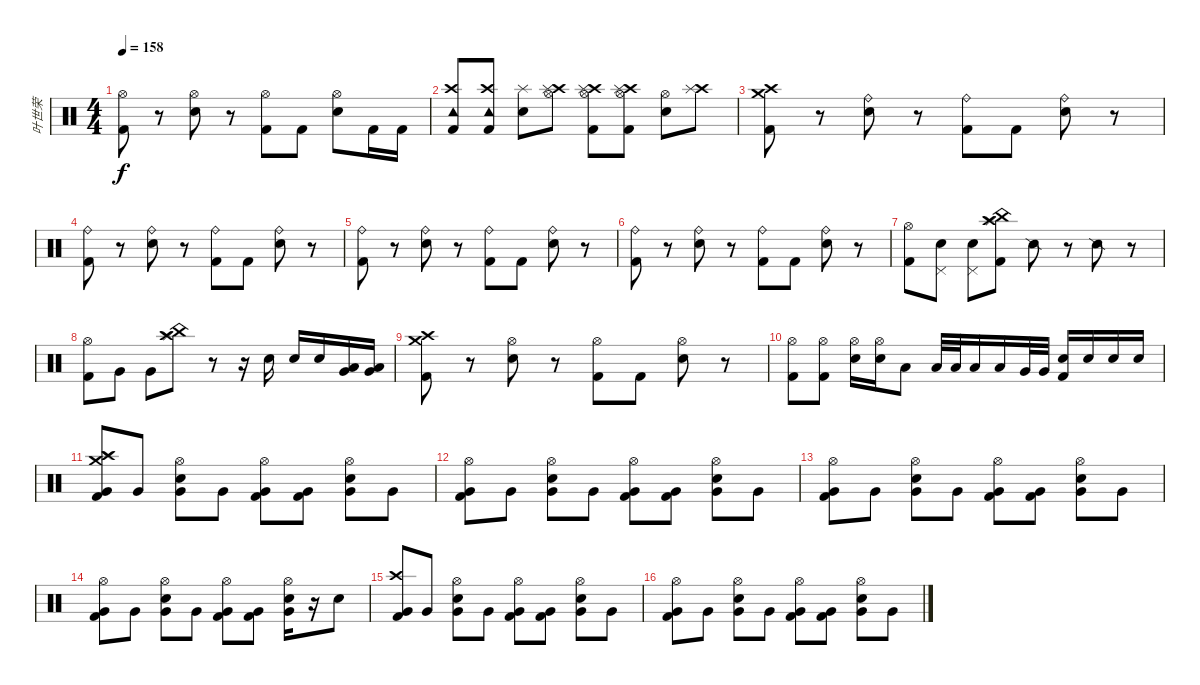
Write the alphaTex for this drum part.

\track ("叶世荣" "叶世荣") {instrument percussion}
\staff {score}
\articulation defaults
\ts (4 4)
\tempo 158
\clef neutral
\ks c
("Hi-Hat (open)" "Kick (hit) 2").8{dy f} r.8 ("Hi-Hat (open)" "Snare (hit) 2").8 r.8 ("Hi-Hat (open)" "Kick (hit) 2").8 "Kick (hit) 2".8 ("Hi-Hat (open)" "Snare (hit) 2").8 "Kick (hit) 2".16 "Kick (hit) 2".16 |
("Crash high (hit)" "Tambourine (hit)" "Kick (hit) 2").8 ("Crash high (hit)" "Tambourine (hit)" "Kick (hit) 2").8 ("Splash (hit)" "Snare (hit) 2").8 ("Crash high (hit)" "Hi-Hat (open)" "Splash (hit)").8 ("Crash high (hit)" "Hi-Hat (open)" "Splash (hit)" "Kick (hit) 2").8 ("Crash high (hit)" "Hi-Hat (open)" "Splash (hit)" "Kick (hit) 2").8 ("Hi-Hat (open)" "Snare (hit) 2").8 ("Crash high (hit)" "Splash (hit)").8 |
("Crash high (hit)" "Crash medium (hit)" "Kick (hit) 2").8 r.8 ("Ride (bell)" "Snare (hit) 2").8 r.8 ("Ride (bell)" "Kick (hit) 2").8 "Kick (hit) 2".8 ("Ride (bell)" "Snare (hit) 2").8 r.8 |
("Ride (bell)" "Kick (hit) 2").8 r.8 ("Ride (bell)" "Snare (hit) 2").8 r.8 ("Ride (bell)" "Kick (hit) 2").8 "Kick (hit) 2".8 ("Ride (bell)" "Snare (hit) 2").8 r.8 |
("Ride (bell)" "Kick (hit) 2").8 r.8 ("Ride (bell)" "Snare (hit) 2").8 r.8 ("Ride (bell)" "Kick (hit) 2").8 "Kick (hit) 2".8 ("Ride (bell)" "Snare (hit) 2").8 r.8 |
("Ride (bell)" "Kick (hit) 2").8 r.8 ("Ride (bell)" "Snare (hit) 2").8 r.8 ("Ride (bell)" "Kick (hit) 2").8 "Kick (hit) 2".8 ("Ride (bell)" "Snare (hit) 2").8 r.8 |
("Hi-Hat (open)" "Kick (hit) 2").8 ("Snare (hit) 2" "Pedal Hi-Hat (hit)").8 ("Snare (hit) 2" "Pedal Hi-Hat (hit)").8 ("Crash high (hit)" "Splash (hit)" "China (hit)" "Kick (hit) 2").8 "Snare (side stick) 2".8 r.8 "Snare (side stick) 2".8 r.8 |
("Hi-Hat (open)" "Kick (hit) 2").8 "Very Low Tom (hit)".8 "Very Low Tom (hit)".8 ("Crash high (hit)" "Splash (hit)" "China (hit)").8 r.8 r.16 "Snare (hit) 2".16 "Snare (hit) 2".16 "Snare (hit) 2".16 ("Low Tom (hit)" "Very Low Tom (hit)").16 ("Low Floor Tom (hit)" "Very Low Tom (hit)").16 |
("Crash high (hit)" "Crash medium (hit)" "Kick (hit) 2").8 r.8 ("Hi-Hat (open)" "Snare (hit) 2").8 r.8 ("Hi-Hat (open)" "Kick (hit) 2").8 "Kick (hit) 2".8 ("Hi-Hat (open)" "Snare (hit) 2").8 r.8 |
("Hi-Hat (open)" "Kick (hit) 2").8 ("Hi-Hat (open)" "Kick (hit) 2").8 ("Hi-Hat (open)" "Snare (hit) 2").16 ("Hi-Hat (open)" "Snare (hit) 2").16 "Low Tom (hit)".8 "Low Tom (hit)".32 "Low Tom (hit)".32 "Low Tom (hit)".16 "Low Tom (hit)".16 "Very Low Tom (hit)".32 "Very Low Tom (hit)".32 ("Snare (hit) 2" "Kick (hit) 2").16 "Snare (hit) 2".16 "Snare (hit) 2".16 "Snare (hit) 2".16 |
("Crash high (hit)" "Splash (hit)" "Crash medium (hit)" "Kick (hit) 2" "Very Low Tom (hit)").8 "Very Low Tom (hit)".8 ("Hi-Hat (open)" "Snare (hit) 2" "Very Low Tom (hit)").8 "Very Low Tom (hit)".8 ("Hi-Hat (open)" "Kick (hit) 2" "Very Low Tom (hit)").8 ("Kick (hit) 2" "Very Low Tom (hit)").8 ("Hi-Hat (open)" "Snare (hit) 2" "Very Low Tom (hit)").8 "Very Low Tom (hit)".8 |
("Hi-Hat (open)" "Kick (hit) 2" "Very Low Tom (hit)").8 "Very Low Tom (hit)".8 ("Hi-Hat (open)" "Snare (hit) 2" "Very Low Tom (hit)").8 "Very Low Tom (hit)".8 ("Hi-Hat (open)" "Kick (hit) 2" "Very Low Tom (hit)").8 ("Kick (hit) 2" "Very Low Tom (hit)").8 ("Hi-Hat (open)" "Snare (hit) 2" "Very Low Tom (hit)").8 "Very Low Tom (hit)".8 |
("Hi-Hat (open)" "Kick (hit) 2" "Very Low Tom (hit)").8 "Very Low Tom (hit)".8 ("Hi-Hat (open)" "Snare (hit) 2" "Very Low Tom (hit)").8 "Very Low Tom (hit)".8 ("Hi-Hat (open)" "Kick (hit) 2" "Very Low Tom (hit)").8 ("Kick (hit) 2" "Very Low Tom (hit)").8 ("Hi-Hat (open)" "Snare (hit) 2" "Very Low Tom (hit)").8 "Very Low Tom (hit)".8 |
("Hi-Hat (open)" "Kick (hit) 2" "Very Low Tom (hit)").8 "Very Low Tom (hit)".8 ("Hi-Hat (open)" "Snare (hit) 2" "Very Low Tom (hit)").8 "Very Low Tom (hit)".8 ("Hi-Hat (open)" "Kick (hit) 2" "Very Low Tom (hit)").8 ("Kick (hit) 2" "Very Low Tom (hit)").8 ("Hi-Hat (open)" "Snare (hit) 2" "Very Low Tom (hit)").16 r.16 "Snare (hit) 2".8 |
("Crash high (hit)" "Kick (hit) 2" "Very Low Tom (hit)").8 "Very Low Tom (hit)".8 ("Hi-Hat (open)" "Snare (hit) 2" "Very Low Tom (hit)").8 "Very Low Tom (hit)".8 ("Hi-Hat (open)" "Kick (hit) 2" "Very Low Tom (hit)").8 ("Kick (hit) 2" "Very Low Tom (hit)").8 ("Hi-Hat (open)" "Snare (hit) 2" "Very Low Tom (hit)").8 "Very Low Tom (hit)".8 |
("Hi-Hat (open)" "Kick (hit) 2" "Very Low Tom (hit)").8 "Very Low Tom (hit)".8 ("Hi-Hat (open)" "Snare (hit) 2" "Very Low Tom (hit)").8 "Very Low Tom (hit)".8 ("Hi-Hat (open)" "Kick (hit) 2" "Very Low Tom (hit)").8 ("Kick (hit) 2" "Very Low Tom (hit)").8 ("Hi-Hat (open)" "Snare (hit) 2" "Very Low Tom (hit)").8 "Very Low Tom (hit)".8
